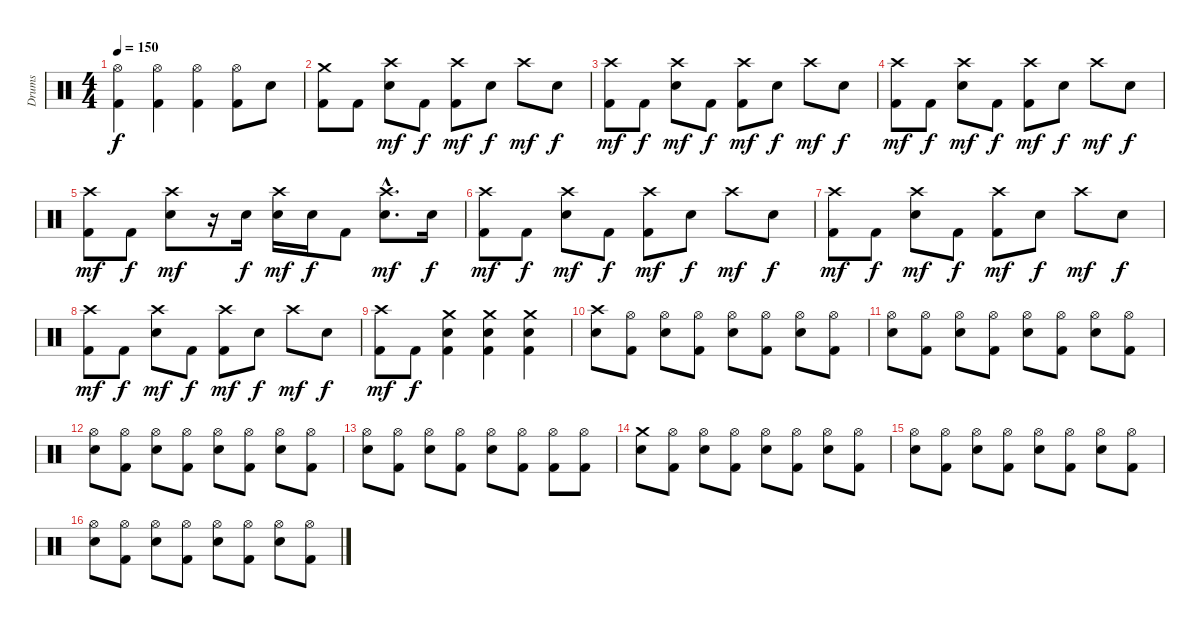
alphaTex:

\track ("Drums" "Drums") {instrument percussion}
\staff {score}
\articulation defaults
\ts (4 4)
\tempo 150
\clef neutral
\ks c
("Kick (hit) 2" "Hi-Hat (open)").4{dy f} ("Kick (hit) 2" "Hi-Hat (open)").4 ("Kick (hit) 2" "Hi-Hat (open)").4 ("Kick (hit) 2" "Hi-Hat (open)").8 "Electric Snare (hit)".8 |
("Kick (hit) 2" "Crash medium (hit)").8 "Kick (hit) 2".8 ("Electric Snare (hit)" "Crash high (hit)").8{dy mf} "Kick (hit) 2".8{dy f} ("Kick (hit) 2" "Crash high (hit)").8{dy mf} "Electric Snare (hit)".8{dy f} "Crash high (hit)".8{dy mf} "Electric Snare (hit)".8{dy f} |
("Kick (hit) 2" "Crash high (hit)").8{dy mf} "Kick (hit) 2".8{dy f} ("Electric Snare (hit)" "Crash high (hit)").8{dy mf} "Kick (hit) 2".8{dy f} ("Kick (hit) 2" "Crash high (hit)").8{dy mf} "Electric Snare (hit)".8{dy f} "Crash high (hit)".8{dy mf} "Electric Snare (hit)".8{dy f} |
("Kick (hit) 2" "Crash high (hit)").8{dy mf} "Kick (hit) 2".8{dy f} ("Electric Snare (hit)" "Crash high (hit)").8{dy mf} "Kick (hit) 2".8{dy f} ("Kick (hit) 2" "Crash high (hit)").8{dy mf} "Electric Snare (hit)".8{dy f} "Crash high (hit)".8{dy mf} "Electric Snare (hit)".8{dy f} |
("Kick (hit) 2" "Crash high (hit)").8{dy mf} "Kick (hit) 2".8{dy f} ("Electric Snare (hit)" "Crash high (hit)").8{dy mf} r.16 "Electric Snare (hit)".16{dy f} ("Electric Snare (hit)" "Crash high (hit)").16{dy mf} "Electric Snare (hit)".16{dy f} "Kick (hit) 2".8 ("Electric Snare (hit)"{hac} "Crash high (hit)"{hac}).8{d dy mf} "Electric Snare (hit)".16{dy f} |
("Kick (hit) 2" "Crash high (hit)").8{dy mf} "Kick (hit) 2".8{dy f} ("Electric Snare (hit)" "Crash high (hit)").8{dy mf} "Kick (hit) 2".8{dy f} ("Kick (hit) 2" "Crash high (hit)").8{dy mf} "Electric Snare (hit)".8{dy f} "Crash high (hit)".8{dy mf} "Electric Snare (hit)".8{dy f} |
("Kick (hit) 2" "Crash high (hit)").8{dy mf} "Kick (hit) 2".8{dy f} ("Electric Snare (hit)" "Crash high (hit)").8{dy mf} "Kick (hit) 2".8{dy f} ("Kick (hit) 2" "Crash high (hit)").8{dy mf} "Electric Snare (hit)".8{dy f} "Crash high (hit)".8{dy mf} "Electric Snare (hit)".8{dy f} |
("Kick (hit) 2" "Crash high (hit)").8{dy mf} "Kick (hit) 2".8{dy f} ("Electric Snare (hit)" "Crash high (hit)").8{dy mf} "Kick (hit) 2".8{dy f} ("Kick (hit) 2" "Crash high (hit)").8{dy mf} "Electric Snare (hit)".8{dy f} "Crash high (hit)".8{dy mf} "Electric Snare (hit)".8{dy f} |
("Kick (hit) 2" "Crash high (hit)").8{dy mf} "Kick (hit) 2".8{dy f} ("Kick (hit) 2" "Electric Snare (hit)" "Crash medium (hit)").4 ("Kick (hit) 2" "Electric Snare (hit)" "Crash medium (hit)").4 ("Kick (hit) 2" "Electric Snare (hit)" "Crash medium (hit)").4 |
("Electric Snare (hit)" "Crash high (hit)").8 ("Kick (hit) 2" "Hi-Hat (open)").8 ("Electric Snare (hit)" "Hi-Hat (open)").8 ("Kick (hit) 2" "Hi-Hat (open)").8 ("Electric Snare (hit)" "Hi-Hat (open)").8 ("Kick (hit) 2" "Hi-Hat (open)").8 ("Electric Snare (hit)" "Hi-Hat (open)").8 ("Kick (hit) 2" "Hi-Hat (open)").8 |
("Electric Snare (hit)" "Hi-Hat (open)").8 ("Kick (hit) 2" "Hi-Hat (open)").8 ("Electric Snare (hit)" "Hi-Hat (open)").8 ("Kick (hit) 2" "Hi-Hat (open)").8 ("Electric Snare (hit)" "Hi-Hat (open)").8 ("Kick (hit) 2" "Hi-Hat (open)").8 ("Electric Snare (hit)" "Hi-Hat (open)").8 ("Kick (hit) 2" "Hi-Hat (open)").8 |
("Electric Snare (hit)" "Hi-Hat (open)").8 ("Kick (hit) 2" "Hi-Hat (open)").8 ("Electric Snare (hit)" "Hi-Hat (open)").8 ("Kick (hit) 2" "Hi-Hat (open)").8 ("Electric Snare (hit)" "Hi-Hat (open)").8 ("Kick (hit) 2" "Hi-Hat (open)").8 ("Electric Snare (hit)" "Hi-Hat (open)").8 ("Kick (hit) 2" "Hi-Hat (open)").8 |
("Electric Snare (hit)" "Hi-Hat (open)").8 ("Kick (hit) 2" "Hi-Hat (open)").8 ("Electric Snare (hit)" "Hi-Hat (open)").8 ("Kick (hit) 2" "Hi-Hat (open)").8 ("Electric Snare (hit)" "Hi-Hat (open)").8 ("Kick (hit) 2" "Hi-Hat (open)").8 ("Kick (hit) 2" "Hi-Hat (open)").8 ("Kick (hit) 2" "Hi-Hat (open)").8 |
("Electric Snare (hit)" "Crash medium (hit)").8 ("Kick (hit) 2" "Hi-Hat (open)").8 ("Electric Snare (hit)" "Hi-Hat (open)").8 ("Kick (hit) 2" "Hi-Hat (open)").8 ("Electric Snare (hit)" "Hi-Hat (open)").8 ("Kick (hit) 2" "Hi-Hat (open)").8 ("Electric Snare (hit)" "Hi-Hat (open)").8 ("Kick (hit) 2" "Hi-Hat (open)").8 |
("Electric Snare (hit)" "Hi-Hat (open)").8 ("Kick (hit) 2" "Hi-Hat (open)").8 ("Electric Snare (hit)" "Hi-Hat (open)").8 ("Kick (hit) 2" "Hi-Hat (open)").8 ("Electric Snare (hit)" "Hi-Hat (open)").8 ("Kick (hit) 2" "Hi-Hat (open)").8 ("Electric Snare (hit)" "Hi-Hat (open)").8 ("Kick (hit) 2" "Hi-Hat (open)").8 |
("Electric Snare (hit)" "Hi-Hat (open)").8 ("Kick (hit) 2" "Hi-Hat (open)").8 ("Electric Snare (hit)" "Hi-Hat (open)").8 ("Kick (hit) 2" "Hi-Hat (open)").8 ("Electric Snare (hit)" "Hi-Hat (open)").8 ("Kick (hit) 2" "Hi-Hat (open)").8 ("Electric Snare (hit)" "Hi-Hat (open)").8 ("Kick (hit) 2" "Hi-Hat (open)").8
